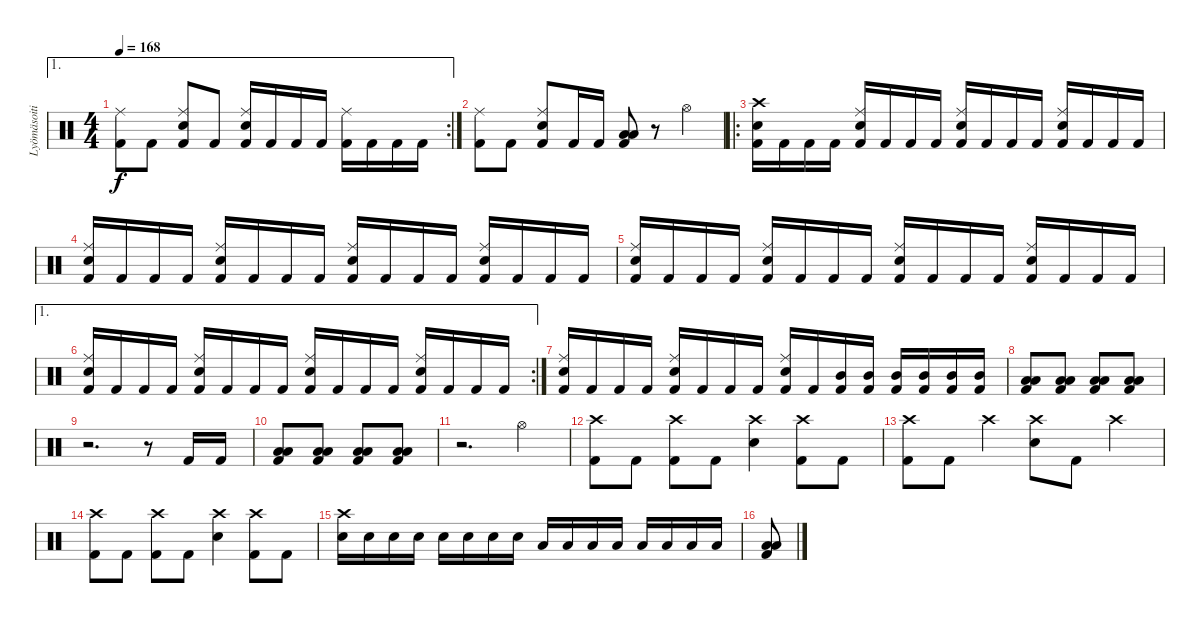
\track ("Lyömäsoitin" "Lyömäsoiti") {instrument percussion}
\staff {score}
\articulation defaults
\ae 1
\rc 2
\ts (4 4)
\tempo 168
\clef neutral
\ks c
("Kick (hit) 2" "Ride (middle)").8{dy f} "Kick (hit) 2".8 ("Kick (hit) 2" "Electric Snare (hit)" "Ride (middle)").8 "Kick (hit) 2".8 ("Kick (hit) 2" "Electric Snare (hit)" "Ride (middle)").16 "Kick (hit) 2".16 "Kick (hit) 2".16 "Kick (hit) 2".16 ("Kick (hit) 2" "Ride (middle)").16 "Kick (hit) 2".16 "Kick (hit) 2".16 "Kick (hit) 2".16 |
("Kick (hit) 2" "Ride (middle)").8 "Kick (hit) 2".8 ("Kick (hit) 2" "Electric Snare (hit)" "Ride (middle)").8 "Kick (hit) 2".16 "Kick (hit) 2".16 ("Kick (hit) 2" "Low Floor Tom (hit)" "Low Tom (hit)").8 r.8 "Hi-Hat (open)".4 |
\ro
("Kick (hit) 2" "Electric Snare (hit)" "Crash high (hit)").16 "Kick (hit) 2".16 "Kick (hit) 2".16 "Kick (hit) 2".16 ("Kick (hit) 2" "Electric Snare (hit)" "Ride (middle)").16 "Kick (hit) 2".16 "Kick (hit) 2".16 "Kick (hit) 2".16 ("Kick (hit) 2" "Electric Snare (hit)" "Ride (middle)").16 "Kick (hit) 2".16 "Kick (hit) 2".16 "Kick (hit) 2".16 ("Kick (hit) 2" "Electric Snare (hit)" "Ride (middle)").16 "Kick (hit) 2".16 "Kick (hit) 2".16 "Kick (hit) 2".16 |
("Kick (hit) 2" "Electric Snare (hit)" "Ride (middle)").16 "Kick (hit) 2".16 "Kick (hit) 2".16 "Kick (hit) 2".16 ("Kick (hit) 2" "Electric Snare (hit)" "Ride (middle)").16 "Kick (hit) 2".16 "Kick (hit) 2".16 "Kick (hit) 2".16 ("Kick (hit) 2" "Electric Snare (hit)" "Ride (middle)").16 "Kick (hit) 2".16 "Kick (hit) 2".16 "Kick (hit) 2".16 ("Kick (hit) 2" "Electric Snare (hit)" "Ride (middle)").16 "Kick (hit) 2".16 "Kick (hit) 2".16 "Kick (hit) 2".16 |
("Kick (hit) 2" "Electric Snare (hit)" "Ride (middle)").16 "Kick (hit) 2".16 "Kick (hit) 2".16 "Kick (hit) 2".16 ("Kick (hit) 2" "Electric Snare (hit)" "Ride (middle)").16 "Kick (hit) 2".16 "Kick (hit) 2".16 "Kick (hit) 2".16 ("Kick (hit) 2" "Electric Snare (hit)" "Ride (middle)").16 "Kick (hit) 2".16 "Kick (hit) 2".16 "Kick (hit) 2".16 ("Kick (hit) 2" "Electric Snare (hit)" "Ride (middle)").16 "Kick (hit) 2".16 "Kick (hit) 2".16 "Kick (hit) 2".16 |
\ae 1
\rc 2
("Kick (hit) 2" "Electric Snare (hit)" "Ride (middle)").16 "Kick (hit) 2".16 "Kick (hit) 2".16 "Kick (hit) 2".16 ("Kick (hit) 2" "Electric Snare (hit)" "Ride (middle)").16 "Kick (hit) 2".16 "Kick (hit) 2".16 "Kick (hit) 2".16 ("Kick (hit) 2" "Electric Snare (hit)" "Ride (middle)").16 "Kick (hit) 2".16 "Kick (hit) 2".16 "Kick (hit) 2".16 ("Kick (hit) 2" "Electric Snare (hit)" "Ride (middle)").16 "Kick (hit) 2".16 "Kick (hit) 2".16 "Kick (hit) 2".16 |
("Kick (hit) 2" "Electric Snare (hit)" "Ride (middle)").16 "Kick (hit) 2".16 "Kick (hit) 2".16 "Kick (hit) 2".16 ("Kick (hit) 2" "Electric Snare (hit)" "Ride (middle)").16 "Kick (hit) 2".16 "Kick (hit) 2".16 "Kick (hit) 2".16 ("Kick (hit) 2" "Electric Snare (hit)" "Ride (middle)").16 "Kick (hit) 2".16 ("Kick (hit) 2" "Mid Tom (hit)").16 ("Kick (hit) 2" "Mid Tom (hit)").16 ("Kick (hit) 2" "Mid Tom (hit)").16 ("Kick (hit) 2" "Mid Tom (hit)").16 ("Kick (hit) 2" "Mid Tom (hit)").16 ("Kick (hit) 2" "Mid Tom (hit)").16 |
("Kick (hit) 2" "Low Floor Tom (hit)" "Low Tom (hit)").8 ("Kick (hit) 2" "Low Floor Tom (hit)" "Low Tom (hit)").8 ("Kick (hit) 2" "Low Floor Tom (hit)" "Low Tom (hit)").8 ("Kick (hit) 2" "Low Floor Tom (hit)" "Low Tom (hit)").8 |
r.2{d} r.8 "Kick (hit) 2".16 "Kick (hit) 2".16 |
("Kick (hit) 2" "Low Floor Tom (hit)" "Low Tom (hit)").8 ("Kick (hit) 2" "Low Floor Tom (hit)" "Low Tom (hit)").8 ("Kick (hit) 2" "Low Floor Tom (hit)" "Low Tom (hit)").8 ("Kick (hit) 2" "Low Floor Tom (hit)" "Low Tom (hit)").8 |
r.2{d} "Hi-Hat (open)".4 |
("Kick (hit) 2" "Crash high (hit)").8 "Kick (hit) 2".8 ("Kick (hit) 2" "Crash high (hit)").8 "Kick (hit) 2".8 ("Electric Snare (hit)" "Crash high (hit)").4 ("Kick (hit) 2" "Crash high (hit)").8 "Kick (hit) 2".8 |
("Kick (hit) 2" "Crash high (hit)").8 "Kick (hit) 2".8 "Crash high (hit)".4 ("Electric Snare (hit)" "Crash high (hit)").8 "Kick (hit) 2".8 "Crash high (hit)".4 |
("Kick (hit) 2" "Crash high (hit)").8 "Kick (hit) 2".8 ("Kick (hit) 2" "Crash high (hit)").8 "Kick (hit) 2".8 ("Electric Snare (hit)" "Crash high (hit)").4 ("Kick (hit) 2" "Crash high (hit)").8 "Kick (hit) 2".8 |
("Electric Snare (hit)" "Crash high (hit)").16 "Electric Snare (hit)".16 "Electric Snare (hit)".16 "Electric Snare (hit)".16 "Electric Snare (hit)".16 "Electric Snare (hit)".16 "Electric Snare (hit)".16 "Electric Snare (hit)".16 "Low Tom (hit)".16 "Low Tom (hit)".16 "Low Tom (hit)".16 "Low Tom (hit)".16 "Low Floor Tom (hit)".16 "Low Floor Tom (hit)".16 "Low Floor Tom (hit)".16 "Low Floor Tom (hit)".16 |
("Kick (hit) 2" "Low Floor Tom (hit)" "Low Tom (hit)").8
